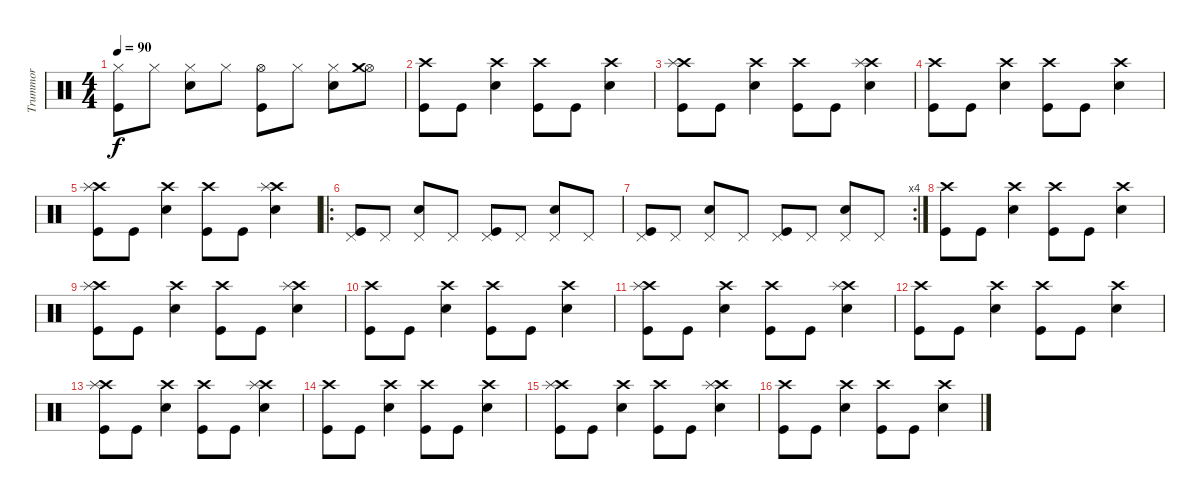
\track ("Trummor" "Trummor") {instrument percussion}
\staff {score}
\articulation defaults
\ts (4 4)
\tempo 90
\clef neutral
\ks c
("Hi-Hat (closed)" "Kick (hit)").8{dy f} "Hi-Hat (closed)".8 ("Hi-Hat (closed)" "Snare (hit) 2").8 "Hi-Hat (closed)".8 ("Hi-Hat (open)" "Kick (hit)").8 "Hi-Hat (closed)".8 ("Hi-Hat (closed)" "Snare (hit) 2").8 ("Hi-Hat (open)" "Crash medium (hit)").8 |
("Crash high (hit)" "Kick (hit)").8 "Kick (hit)".8 ("Crash high (hit)" "Snare (hit) 2").4 ("Crash high (hit)" "Kick (hit)").8 "Kick (hit)".8 ("Crash high (hit)" "Snare (hit) 2").4 |
("Crash high (hit)" "Splash (hit)" "Kick (hit)").8 "Kick (hit)".8 ("Crash high (hit)" "Snare (hit) 2").4 ("Crash high (hit)" "Kick (hit)").8 "Kick (hit)".8 ("Crash high (hit)" "Splash (hit)" "Snare (hit) 2").4 |
("Crash high (hit)" "Kick (hit)").8 "Kick (hit)".8 ("Crash high (hit)" "Snare (hit) 2").4 ("Crash high (hit)" "Kick (hit)").8 "Kick (hit)".8 ("Crash high (hit)" "Snare (hit) 2").4 |
("Crash high (hit)" "Splash (hit)" "Kick (hit)").8 "Kick (hit)".8 ("Crash high (hit)" "Snare (hit) 2").4 ("Crash high (hit)" "Kick (hit)").8 "Kick (hit)".8 ("Crash high (hit)" "Splash (hit)" "Snare (hit) 2").4 |
\ro
("Pedal Hi-Hat (hit)" "Kick (hit)").8 "Pedal Hi-Hat (hit)".8 ("Pedal Hi-Hat (hit)" "Snare (hit) 2").8 "Pedal Hi-Hat (hit)".8 ("Pedal Hi-Hat (hit)" "Kick (hit)").8 "Pedal Hi-Hat (hit)".8 ("Pedal Hi-Hat (hit)" "Snare (hit) 2").8 "Pedal Hi-Hat (hit)".8 |
\rc 4
("Pedal Hi-Hat (hit)" "Kick (hit)").8 "Pedal Hi-Hat (hit)".8 ("Pedal Hi-Hat (hit)" "Snare (hit) 2").8 "Pedal Hi-Hat (hit)".8 ("Pedal Hi-Hat (hit)" "Kick (hit)").8 "Pedal Hi-Hat (hit)".8 ("Pedal Hi-Hat (hit)" "Snare (hit) 2").8 "Pedal Hi-Hat (hit)".8 |
("Crash high (hit)" "Kick (hit)").8 "Kick (hit)".8 ("Crash high (hit)" "Snare (hit) 2").4 ("Crash high (hit)" "Kick (hit)").8 "Kick (hit)".8 ("Crash high (hit)" "Snare (hit) 2").4 |
("Crash high (hit)" "Splash (hit)" "Kick (hit)").8 "Kick (hit)".8 ("Crash high (hit)" "Snare (hit) 2").4 ("Crash high (hit)" "Kick (hit)").8 "Kick (hit)".8 ("Crash high (hit)" "Splash (hit)" "Snare (hit) 2").4 |
("Crash high (hit)" "Kick (hit)").8 "Kick (hit)".8 ("Crash high (hit)" "Snare (hit) 2").4 ("Crash high (hit)" "Kick (hit)").8 "Kick (hit)".8 ("Crash high (hit)" "Snare (hit) 2").4 |
("Crash high (hit)" "Splash (hit)" "Kick (hit)").8 "Kick (hit)".8 ("Crash high (hit)" "Snare (hit) 2").4 ("Crash high (hit)" "Kick (hit)").8 "Kick (hit)".8 ("Crash high (hit)" "Splash (hit)" "Snare (hit) 2").4 |
("Crash high (hit)" "Kick (hit)").8 "Kick (hit)".8 ("Crash high (hit)" "Snare (hit) 2").4 ("Crash high (hit)" "Kick (hit)").8 "Kick (hit)".8 ("Crash high (hit)" "Snare (hit) 2").4 |
("Crash high (hit)" "Splash (hit)" "Kick (hit)").8 "Kick (hit)".8 ("Crash high (hit)" "Snare (hit) 2").4 ("Crash high (hit)" "Kick (hit)").8 "Kick (hit)".8 ("Crash high (hit)" "Splash (hit)" "Snare (hit) 2").4 |
("Crash high (hit)" "Kick (hit)").8 "Kick (hit)".8 ("Crash high (hit)" "Snare (hit) 2").4 ("Crash high (hit)" "Kick (hit)").8 "Kick (hit)".8 ("Crash high (hit)" "Snare (hit) 2").4 |
("Crash high (hit)" "Splash (hit)" "Kick (hit)").8 "Kick (hit)".8 ("Crash high (hit)" "Snare (hit) 2").4 ("Crash high (hit)" "Kick (hit)").8 "Kick (hit)".8 ("Crash high (hit)" "Splash (hit)" "Snare (hit) 2").4 |
("Crash high (hit)" "Kick (hit)").8 "Kick (hit)".8 ("Crash high (hit)" "Snare (hit) 2").4 ("Crash high (hit)" "Kick (hit)").8 "Kick (hit)".8 ("Crash high (hit)" "Snare (hit) 2").4
